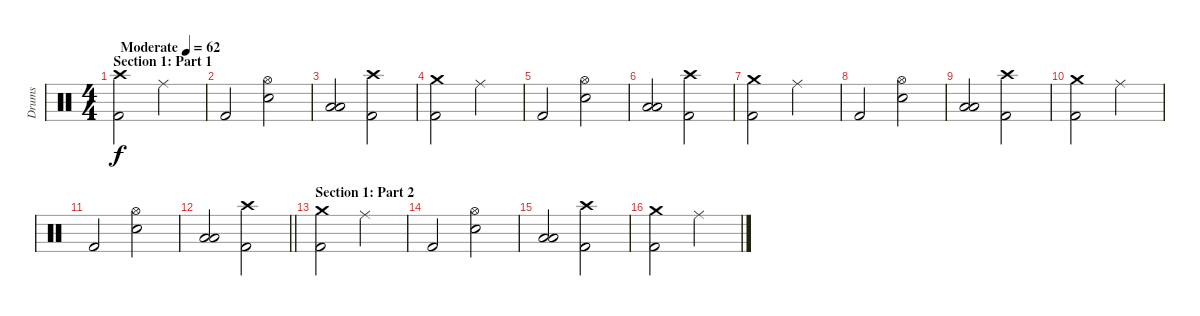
\track ("Drums" "Drums") {instrument percussion}
\staff {score}
\articulation defaults
\ts (4 4)
\section ("" "Section 1: Part 1")
\tempo (62 "Moderate")
\clef neutral
\ks c
("Crash high (hit)" "Kick (hit) 2").2{dy f} "Ride (middle)".2 |
"Kick (hit) 2".2 ("Hi-Hat (open)" "Electric Snare (hit)").2 |
("Low Tom (hit)" "Low Floor Tom (hit)").2 ("Crash high (hit)" "Kick (hit) 2").2 |
("Crash medium (hit)" "Kick (hit) 2").2 "Ride (middle)".2 |
"Kick (hit) 2".2 ("Hi-Hat (open)" "Electric Snare (hit)").2 |
("Low Tom (hit)" "Low Floor Tom (hit)").2 ("Crash high (hit)" "Kick (hit) 2").2 |
("Crash medium (hit)" "Kick (hit) 2").2 "Ride (middle)".2 |
"Kick (hit) 2".2 ("Hi-Hat (open)" "Electric Snare (hit)").2 |
("Low Tom (hit)" "Low Floor Tom (hit)").2 ("Crash high (hit)" "Kick (hit) 2").2 |
("Crash medium (hit)" "Kick (hit) 2").2 "Ride (middle)".2 |
"Kick (hit) 2".2 ("Hi-Hat (open)" "Electric Snare (hit)").2 |
\barLineRight lightlight
("Low Tom (hit)" "Low Floor Tom (hit)").2 ("Crash high (hit)" "Kick (hit) 2").2 |
\section ("" "Section 1: Part 2")
("Crash medium (hit)" "Kick (hit) 2").2 "Ride (middle)".2 |
"Kick (hit) 2".2 ("Hi-Hat (open)" "Electric Snare (hit)").2 |
("Low Tom (hit)" "Low Floor Tom (hit)").2 ("Crash high (hit)" "Kick (hit) 2").2 |
("Crash medium (hit)" "Kick (hit) 2").2 "Ride (middle)".2
